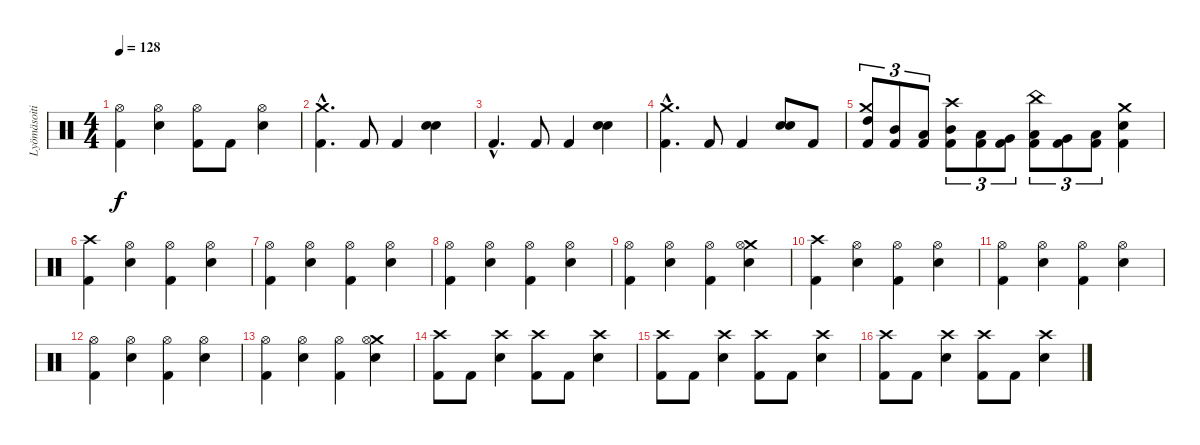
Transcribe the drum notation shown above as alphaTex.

\track ("Lyömäsoitin" "Lyömäsoiti") {instrument percussion}
\staff {score}
\articulation defaults
\ts (4 4)
\tempo 128
\clef neutral
\ks c
("Hi-Hat (open)" "Kick (hit) 2").4{dy f} ("Hi-Hat (open)" "Electric Snare (hit)").4 ("Hi-Hat (open)" "Kick (hit) 2").8 "Kick (hit) 2".8 ("Hi-Hat (open)" "Electric Snare (hit)").4 |
("Crash medium (hit)"{hac} "Kick (hit) 2"{hac}).4{d} "Kick (hit) 2".8 "Kick (hit) 2".4 ("Electric Snare (hit)" "Electric Snare (hit)").4 |
"Kick (hit) 2"{hac}.4{d} "Kick (hit) 2".8 "Kick (hit) 2".4 ("Electric Snare (hit)" "Electric Snare (hit)").4 |
("Crash medium (hit)"{hac} "Kick (hit) 2"{hac}).4{d} "Kick (hit) 2".8 "Kick (hit) 2".4 ("Electric Snare (hit)" "Electric Snare (hit)").8 "Kick (hit) 2".8 |
("Crash medium (hit)" "High Tom (hit)" "Kick (hit) 2").8{tu (3 2)} ("Mid Tom (hit)" "Kick (hit) 2").8{tu (3 2)} ("Low Tom (hit)" "Kick (hit) 2").8{tu (3 2)} ("Crash high (hit)" "Mid Tom (hit)" "Kick (hit) 2").8{tu (3 2)} ("Low Tom (hit)" "Kick (hit) 2").8{tu (3 2)} ("Very Low Tom (hit)" "Kick (hit) 2").8{tu (3 2)} ("China (hit)" "Low Tom (hit)" "Kick (hit) 2").8{tu (3 2)} ("Very Low Tom (hit)" "Kick (hit) 2").8{tu (3 2)} ("Low Floor Tom (hit)" "Kick (hit) 2").8{tu (3 2)} ("Crash medium (hit)" "Electric Snare (hit)" "Kick (hit) 2").4 |
("Crash high (hit)" "Kick (hit) 2").4 ("Hi-Hat (open)" "Electric Snare (hit)").4 ("Hi-Hat (open)" "Kick (hit) 2").4 ("Hi-Hat (open)" "Electric Snare (hit)").4 |
("Hi-Hat (open)" "Kick (hit) 2").4 ("Hi-Hat (open)" "Electric Snare (hit)").4 ("Hi-Hat (open)" "Kick (hit) 2").4 ("Hi-Hat (open)" "Electric Snare (hit)").4 |
("Hi-Hat (open)" "Kick (hit) 2").4 ("Hi-Hat (open)" "Electric Snare (hit)").4 ("Hi-Hat (open)" "Kick (hit) 2").4 ("Hi-Hat (open)" "Electric Snare (hit)").4 |
("Hi-Hat (open)" "Kick (hit) 2").4 ("Hi-Hat (open)" "Electric Snare (hit)").4 ("Hi-Hat (open)" "Kick (hit) 2").4 ("Crash medium (hit)" "Hi-Hat (open)" "Electric Snare (hit)").4 |
("Crash high (hit)" "Kick (hit) 2").4 ("Hi-Hat (open)" "Electric Snare (hit)").4 ("Hi-Hat (open)" "Kick (hit) 2").4 ("Hi-Hat (open)" "Electric Snare (hit)").4 |
("Hi-Hat (open)" "Kick (hit) 2").4 ("Hi-Hat (open)" "Electric Snare (hit)").4 ("Hi-Hat (open)" "Kick (hit) 2").4 ("Hi-Hat (open)" "Electric Snare (hit)").4 |
("Hi-Hat (open)" "Kick (hit) 2").4 ("Hi-Hat (open)" "Electric Snare (hit)").4 ("Hi-Hat (open)" "Kick (hit) 2").4 ("Hi-Hat (open)" "Electric Snare (hit)").4 |
("Hi-Hat (open)" "Kick (hit) 2").4 ("Hi-Hat (open)" "Electric Snare (hit)").4 ("Hi-Hat (open)" "Kick (hit) 2").4 ("Crash medium (hit)" "Hi-Hat (open)" "Electric Snare (hit)").4 |
("Crash high (hit)" "Kick (hit) 2").8 "Kick (hit) 2".8 ("Crash high (hit)" "Electric Snare (hit)").4 ("Crash high (hit)" "Kick (hit) 2").8 "Kick (hit) 2".8 ("Crash high (hit)" "Electric Snare (hit)").4 |
("Crash high (hit)" "Kick (hit) 2").8 "Kick (hit) 2".8 ("Crash high (hit)" "Electric Snare (hit)").4 ("Crash high (hit)" "Kick (hit) 2").8 "Kick (hit) 2".8 ("Crash high (hit)" "Electric Snare (hit)").4 |
("Crash high (hit)" "Kick (hit) 2").8 "Kick (hit) 2".8 ("Crash high (hit)" "Electric Snare (hit)").4 ("Crash high (hit)" "Kick (hit) 2").8 "Kick (hit) 2".8 ("Crash high (hit)" "Electric Snare (hit)").4
